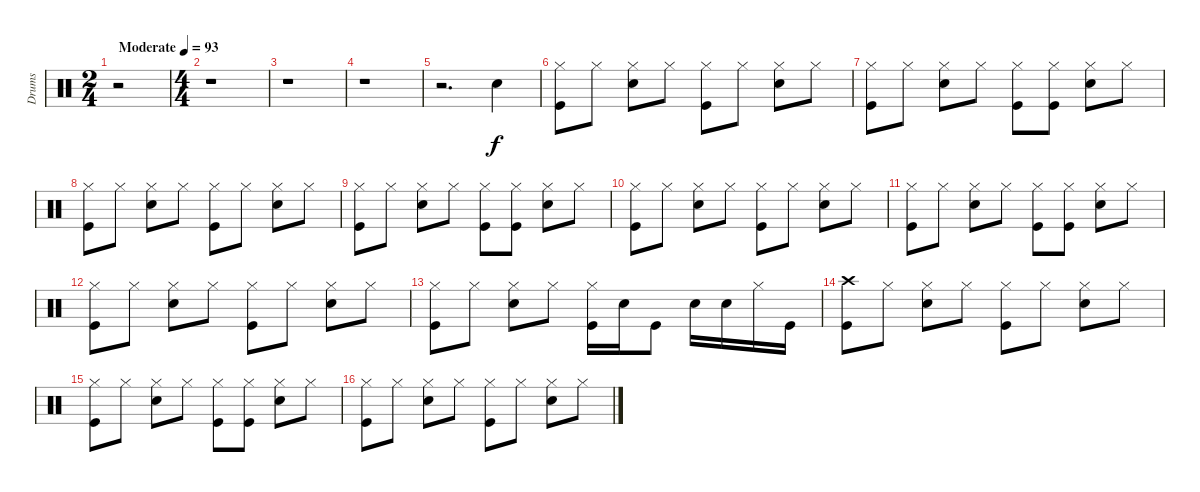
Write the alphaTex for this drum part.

\track ("Drums" "Drums") {instrument percussion}
\staff {score}
\articulation defaults
\ts (2 4)
\tempo (93 "Moderate")
\clef neutral
\ks c
r.2{dy f} |
\ts (4 4)
r.1 |
r.1 |
r.1 |
r.2{d} "Snare (hit) 2".4 |
("Hi-Hat (closed)" "Kick (hit)").8 "Hi-Hat (closed)".8 ("Hi-Hat (closed)" "Snare (hit) 2").8 "Hi-Hat (closed)".8 ("Hi-Hat (closed)" "Kick (hit)").8 "Hi-Hat (closed)".8 ("Hi-Hat (closed)" "Snare (hit) 2").8 "Hi-Hat (closed)".8 |
("Hi-Hat (closed)" "Kick (hit)").8 "Hi-Hat (closed)".8 ("Hi-Hat (closed)" "Snare (hit) 2").8 "Hi-Hat (closed)".8 ("Hi-Hat (closed)" "Kick (hit)").8 ("Hi-Hat (closed)" "Kick (hit)").8 ("Hi-Hat (closed)" "Snare (hit) 2").8 "Hi-Hat (closed)".8 |
("Hi-Hat (closed)" "Kick (hit)").8 "Hi-Hat (closed)".8 ("Hi-Hat (closed)" "Snare (hit) 2").8 "Hi-Hat (closed)".8 ("Hi-Hat (closed)" "Kick (hit)").8 "Hi-Hat (closed)".8 ("Hi-Hat (closed)" "Snare (hit) 2").8 "Hi-Hat (closed)".8 |
("Hi-Hat (closed)" "Kick (hit)").8 "Hi-Hat (closed)".8 ("Hi-Hat (closed)" "Snare (hit) 2").8 "Hi-Hat (closed)".8 ("Hi-Hat (closed)" "Kick (hit)").8 ("Hi-Hat (closed)" "Kick (hit)").8 ("Hi-Hat (closed)" "Snare (hit) 2").8 "Hi-Hat (closed)".8 |
("Hi-Hat (closed)" "Kick (hit)").8 "Hi-Hat (closed)".8 ("Hi-Hat (closed)" "Snare (hit) 2").8 "Hi-Hat (closed)".8 ("Hi-Hat (closed)" "Kick (hit)").8 "Hi-Hat (closed)".8 ("Hi-Hat (closed)" "Snare (hit) 2").8 "Hi-Hat (closed)".8 |
("Hi-Hat (closed)" "Kick (hit)").8 "Hi-Hat (closed)".8 ("Hi-Hat (closed)" "Snare (hit) 2").8 "Hi-Hat (closed)".8 ("Hi-Hat (closed)" "Kick (hit)").8 ("Hi-Hat (closed)" "Kick (hit)").8 ("Hi-Hat (closed)" "Snare (hit) 2").8 "Hi-Hat (closed)".8 |
("Hi-Hat (closed)" "Kick (hit)").8 "Hi-Hat (closed)".8 ("Hi-Hat (closed)" "Snare (hit) 2").8 "Hi-Hat (closed)".8 ("Hi-Hat (closed)" "Kick (hit)").8 "Hi-Hat (closed)".8 ("Hi-Hat (closed)" "Snare (hit) 2").8 "Hi-Hat (closed)".8 |
("Hi-Hat (closed)" "Kick (hit)").8 "Hi-Hat (closed)".8 ("Hi-Hat (closed)" "Snare (hit) 2").8 "Hi-Hat (closed)".8 ("Hi-Hat (closed)" "Kick (hit)").16 "Snare (hit) 2".16 "Kick (hit)".8 "Snare (hit) 2".16 "Snare (hit) 2".16 "Hi-Hat (closed)".16 "Kick (hit)".16 |
("Crash high (hit)" "Kick (hit)").8 "Hi-Hat (closed)".8 ("Hi-Hat (closed)" "Snare (hit) 2").8 "Hi-Hat (closed)".8 ("Hi-Hat (closed)" "Kick (hit)").8 "Hi-Hat (closed)".8 ("Hi-Hat (closed)" "Snare (hit) 2").8 "Hi-Hat (closed)".8 |
("Hi-Hat (closed)" "Kick (hit)").8 "Hi-Hat (closed)".8 ("Hi-Hat (closed)" "Snare (hit) 2").8 "Hi-Hat (closed)".8 ("Hi-Hat (closed)" "Kick (hit)").8 ("Hi-Hat (closed)" "Kick (hit)").8 ("Hi-Hat (closed)" "Snare (hit) 2").8 "Hi-Hat (closed)".8 |
("Hi-Hat (closed)" "Kick (hit)").8 "Hi-Hat (closed)".8 ("Hi-Hat (closed)" "Snare (hit) 2").8 "Hi-Hat (closed)".8 ("Hi-Hat (closed)" "Kick (hit)").8 "Hi-Hat (closed)".8 ("Hi-Hat (closed)" "Snare (hit) 2").8 "Hi-Hat (closed)".8
